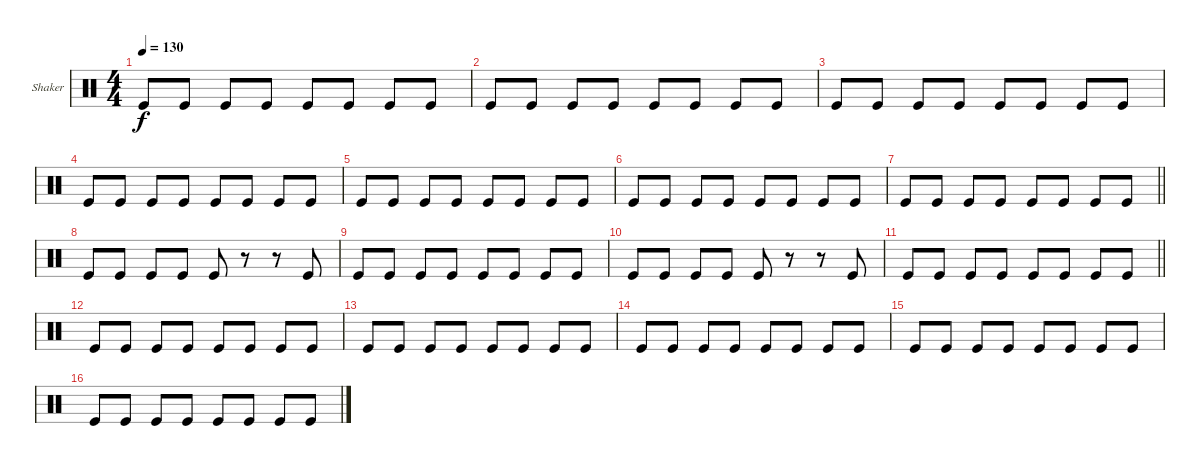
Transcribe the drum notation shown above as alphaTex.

\defaultSystemsLayout 4
\bracketExtendMode groupsimilarinstruments
\firstSystemTrackNameOrientation horizontal
\otherSystemsTrackNameOrientation horizontal
\track ("Shaker" "Shaker") {instrument percussion}
\staff {score}
\articulation defaults
\ts (4 4)
\tempo 130
\clef neutral
\scale
0.333333
\ks aminor "Kick (hit)".8{dy f} "Kick (hit)".8 "Kick (hit)".8 "Kick (hit)".8 "Kick (hit)".8 "Kick (hit)".8 "Kick (hit)".8 "Kick (hit)".8
|
\scale
0.333333 "Kick (hit)".8 "Kick (hit)".8 "Kick (hit)".8 "Kick (hit)".8 "Kick (hit)".8 "Kick (hit)".8 "Kick (hit)".8 "Kick (hit)".8 |
\scale
0.333333 "Kick (hit)".8 "Kick (hit)".8 "Kick (hit)".8 "Kick (hit)".8 "Kick (hit)".8 "Kick (hit)".8 "Kick (hit)".8 "Kick (hit)".8 |
\scale
0.333333 "Kick (hit)".8 "Kick (hit)".8 "Kick (hit)".8 "Kick (hit)".8 "Kick (hit)".8 "Kick (hit)".8 "Kick (hit)".8 "Kick (hit)".8 |
\scale
0.333333 "Kick (hit)".8 "Kick (hit)".8 "Kick (hit)".8 "Kick (hit)".8 "Kick (hit)".8 "Kick (hit)".8 "Kick (hit)".8 "Kick (hit)".8 |
\scale
0.333333 "Kick (hit)".8 "Kick (hit)".8 "Kick (hit)".8 "Kick (hit)".8 "Kick (hit)".8 "Kick (hit)".8 "Kick (hit)".8 "Kick (hit)".8 |
\scale
0.333333
\barLineRight lightlight "Kick (hit)".8 "Kick (hit)".8 "Kick (hit)".8 "Kick (hit)".8 "Kick (hit)".8 "Kick (hit)".8 "Kick (hit)".8 "Kick (hit)".8
|
\scale
0.333333 "Kick (hit)".8 "Kick (hit)".8 "Kick (hit)".8 "Kick (hit)".8 "Kick (hit)".8 r.8 r.8 "Kick (hit)".8 |
\scale
0.333333 "Kick (hit)".8 "Kick (hit)".8 "Kick (hit)".8 "Kick (hit)".8 "Kick (hit)".8 "Kick (hit)".8 "Kick (hit)".8 "Kick (hit)".8 |
\scale
0.333333 "Kick (hit)".8 "Kick (hit)".8 "Kick (hit)".8 "Kick (hit)".8 "Kick (hit)".8 r.8 r.8 "Kick (hit)".8 |
\scale
0.333333
\barLineRight lightlight "Kick (hit)".8 "Kick (hit)".8 "Kick (hit)".8 "Kick (hit)".8 "Kick (hit)".8 "Kick (hit)".8 "Kick (hit)".8 "Kick (hit)".8
|
\scale
0.333333 "Kick (hit)".8 "Kick (hit)".8 "Kick (hit)".8 "Kick (hit)".8 "Kick (hit)".8 "Kick (hit)".8 "Kick (hit)".8 "Kick (hit)".8 |
\scale
0.333333 "Kick (hit)".8 "Kick (hit)".8 "Kick (hit)".8 "Kick (hit)".8 "Kick (hit)".8 "Kick (hit)".8 "Kick (hit)".8 "Kick (hit)".8 |
\scale
0.333333 "Kick (hit)".8 "Kick (hit)".8 "Kick (hit)".8 "Kick (hit)".8 "Kick (hit)".8 "Kick (hit)".8 "Kick (hit)".8 "Kick (hit)".8 |
\scale
0.333333 "Kick (hit)".8 "Kick (hit)".8 "Kick (hit)".8 "Kick (hit)".8 "Kick (hit)".8 "Kick (hit)".8 "Kick (hit)".8 "Kick (hit)".8 |
\scale
0.333333 "Kick (hit)".8 "Kick (hit)".8 "Kick (hit)".8 "Kick (hit)".8 "Kick (hit)".8 "Kick (hit)".8 "Kick (hit)".8 "Kick (hit)".8
